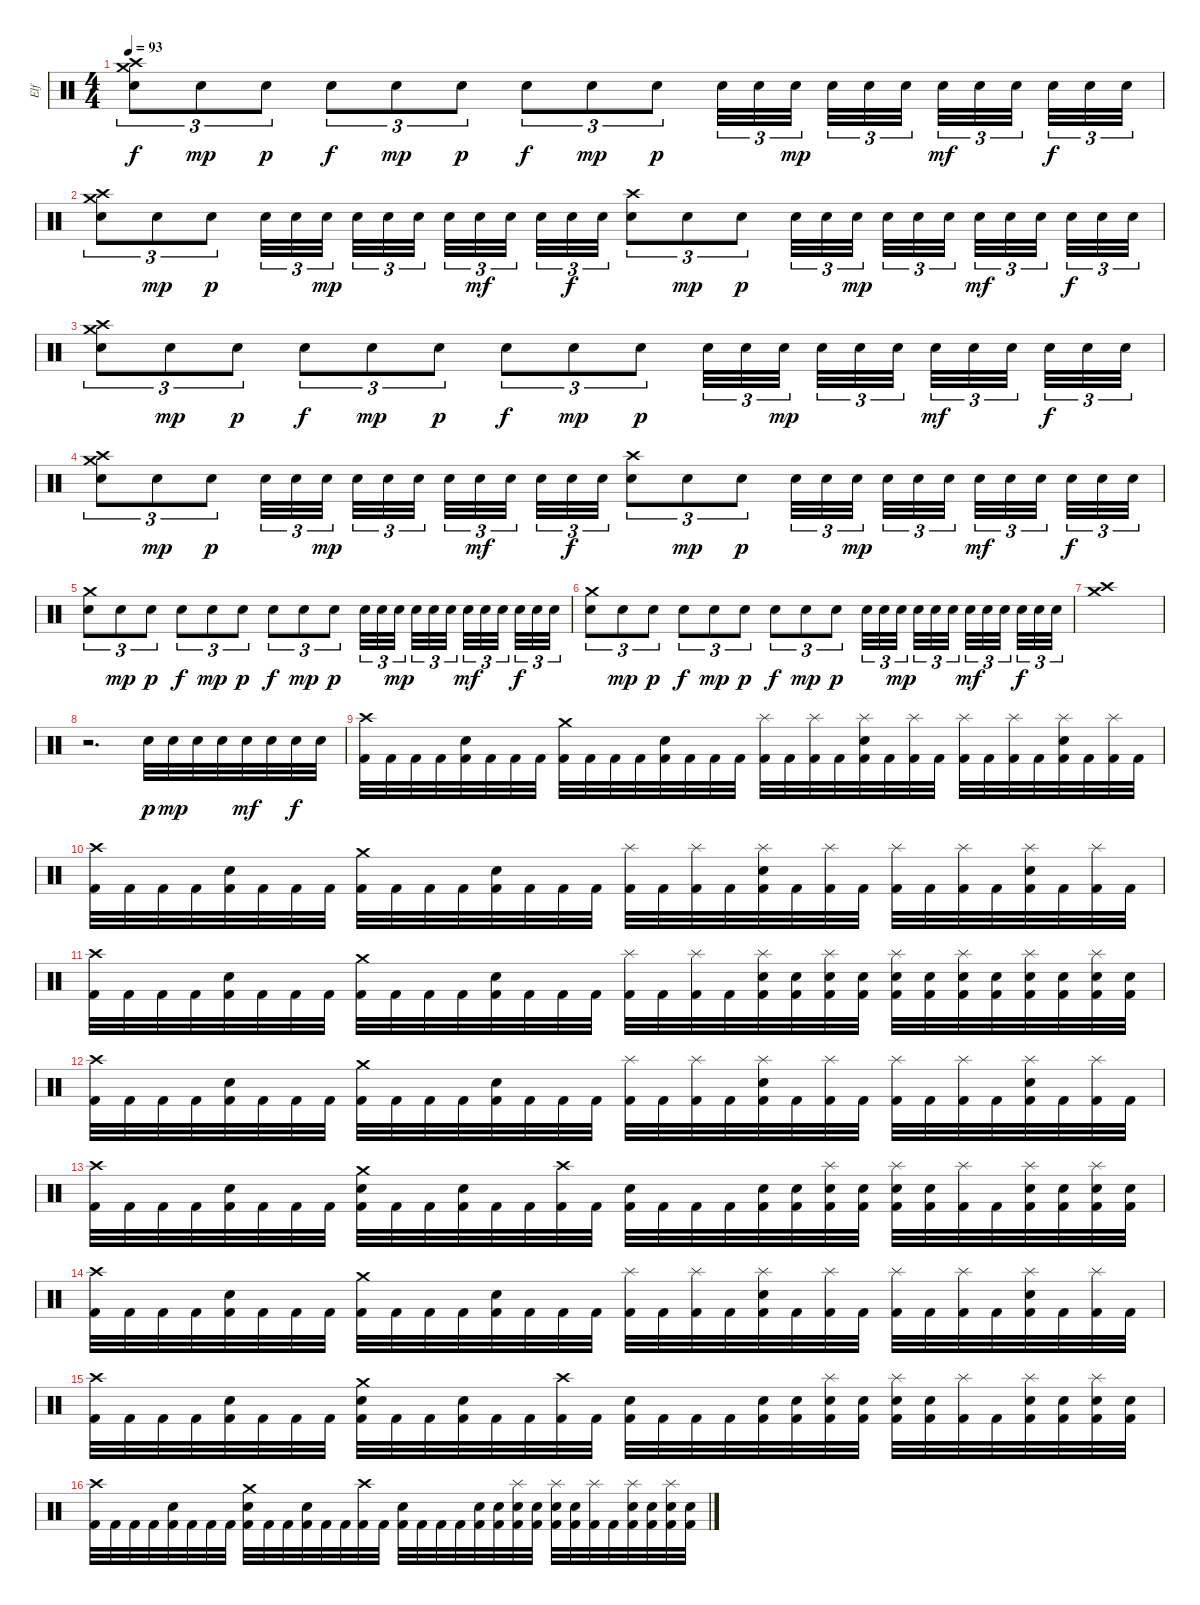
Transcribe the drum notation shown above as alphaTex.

\track ("Elf" "Elf") {instrument percussion}
\staff {score}
\articulation defaults
\ts (4 4)
\tempo 93
\clef neutral
\ks c
("Crash medium (hit)" "Crash high (hit)" "Snare (hit) 2").8{tu (3 2) dy f} "Snare (hit) 2".8{tu (3 2) dy mp} "Snare (hit) 2".8{tu (3 2) dy p} "Snare (hit) 2".8{tu (3 2) dy f} "Snare (hit) 2".8{tu (3 2) dy mp} "Snare (hit) 2".8{tu (3 2) dy p} "Snare (hit) 2".8{tu (3 2) dy f} "Snare (hit) 2".8{tu (3 2) dy mp} "Snare (hit) 2".8{tu (3 2) dy p} "Snare (hit) 2".32{tu (3 2)} "Snare (hit) 2".32{tu (3 2)} "Snare (hit) 2".32{tu (3 2) dy mp} "Snare (hit) 2".32{tu (3 2)} "Snare (hit) 2".32{tu (3 2)} "Snare (hit) 2".32{tu (3 2)} "Snare (hit) 2".32{tu (3 2) dy mf} "Snare (hit) 2".32{tu (3 2)} "Snare (hit) 2".32{tu (3 2)} "Snare (hit) 2".32{tu (3 2) dy f} "Snare (hit) 2".32{tu (3 2)} "Snare (hit) 2".32{tu (3 2)} |
("Crash medium (hit)" "Crash high (hit)" "Snare (hit) 2").8{tu (3 2)} "Snare (hit) 2".8{tu (3 2) dy mp} "Snare (hit) 2".8{tu (3 2) dy p} "Snare (hit) 2".32{tu (3 2)} "Snare (hit) 2".32{tu (3 2)} "Snare (hit) 2".32{tu (3 2) dy mp} "Snare (hit) 2".32{tu (3 2)} "Snare (hit) 2".32{tu (3 2)} "Snare (hit) 2".32{tu (3 2)} "Snare (hit) 2".32{tu (3 2)} "Snare (hit) 2".32{tu (3 2) dy mf} "Snare (hit) 2".32{tu (3 2)} "Snare (hit) 2".32{tu (3 2)} "Snare (hit) 2".32{tu (3 2) dy f} "Snare (hit) 2".32{tu (3 2)} ("Crash high (hit)" "Snare (hit) 2").8{tu (3 2)} "Snare (hit) 2".8{tu (3 2) dy mp} "Snare (hit) 2".8{tu (3 2) dy p} "Snare (hit) 2".32{tu (3 2)} "Snare (hit) 2".32{tu (3 2)} "Snare (hit) 2".32{tu (3 2) dy mp} "Snare (hit) 2".32{tu (3 2)} "Snare (hit) 2".32{tu (3 2)} "Snare (hit) 2".32{tu (3 2)} "Snare (hit) 2".32{tu (3 2) dy mf} "Snare (hit) 2".32{tu (3 2)} "Snare (hit) 2".32{tu (3 2)} "Snare (hit) 2".32{tu (3 2) dy f} "Snare (hit) 2".32{tu (3 2)} "Snare (hit) 2".32{tu (3 2)} |
("Crash medium (hit)" "Crash high (hit)" "Snare (hit) 2").8{tu (3 2)} "Snare (hit) 2".8{tu (3 2) dy mp} "Snare (hit) 2".8{tu (3 2) dy p} "Snare (hit) 2".8{tu (3 2) dy f} "Snare (hit) 2".8{tu (3 2) dy mp} "Snare (hit) 2".8{tu (3 2) dy p} "Snare (hit) 2".8{tu (3 2) dy f} "Snare (hit) 2".8{tu (3 2) dy mp} "Snare (hit) 2".8{tu (3 2) dy p} "Snare (hit) 2".32{tu (3 2)} "Snare (hit) 2".32{tu (3 2)} "Snare (hit) 2".32{tu (3 2) dy mp} "Snare (hit) 2".32{tu (3 2)} "Snare (hit) 2".32{tu (3 2)} "Snare (hit) 2".32{tu (3 2)} "Snare (hit) 2".32{tu (3 2) dy mf} "Snare (hit) 2".32{tu (3 2)} "Snare (hit) 2".32{tu (3 2)} "Snare (hit) 2".32{tu (3 2) dy f} "Snare (hit) 2".32{tu (3 2)} "Snare (hit) 2".32{tu (3 2)} |
("Crash medium (hit)" "Crash high (hit)" "Snare (hit) 2").8{tu (3 2)} "Snare (hit) 2".8{tu (3 2) dy mp} "Snare (hit) 2".8{tu (3 2) dy p} "Snare (hit) 2".32{tu (3 2)} "Snare (hit) 2".32{tu (3 2)} "Snare (hit) 2".32{tu (3 2) dy mp} "Snare (hit) 2".32{tu (3 2)} "Snare (hit) 2".32{tu (3 2)} "Snare (hit) 2".32{tu (3 2)} "Snare (hit) 2".32{tu (3 2)} "Snare (hit) 2".32{tu (3 2) dy mf} "Snare (hit) 2".32{tu (3 2)} "Snare (hit) 2".32{tu (3 2)} "Snare (hit) 2".32{tu (3 2) dy f} "Snare (hit) 2".32{tu (3 2)} ("Crash high (hit)" "Snare (hit) 2").8{tu (3 2)} "Snare (hit) 2".8{tu (3 2) dy mp} "Snare (hit) 2".8{tu (3 2) dy p} "Snare (hit) 2".32{tu (3 2)} "Snare (hit) 2".32{tu (3 2)} "Snare (hit) 2".32{tu (3 2) dy mp} "Snare (hit) 2".32{tu (3 2)} "Snare (hit) 2".32{tu (3 2)} "Snare (hit) 2".32{tu (3 2)} "Snare (hit) 2".32{tu (3 2) dy mf} "Snare (hit) 2".32{tu (3 2)} "Snare (hit) 2".32{tu (3 2)} "Snare (hit) 2".32{tu (3 2) dy f} "Snare (hit) 2".32{tu (3 2)} "Snare (hit) 2".32{tu (3 2)} |
("Crash medium (hit)" "Snare (hit) 2").8{tu (3 2)} "Snare (hit) 2".8{tu (3 2) dy mp} "Snare (hit) 2".8{tu (3 2) dy p} "Snare (hit) 2".8{tu (3 2) dy f} "Snare (hit) 2".8{tu (3 2) dy mp} "Snare (hit) 2".8{tu (3 2) dy p} "Snare (hit) 2".8{tu (3 2) dy f} "Snare (hit) 2".8{tu (3 2) dy mp} "Snare (hit) 2".8{tu (3 2) dy p} "Snare (hit) 2".32{tu (3 2)} "Snare (hit) 2".32{tu (3 2)} "Snare (hit) 2".32{tu (3 2) dy mp} "Snare (hit) 2".32{tu (3 2)} "Snare (hit) 2".32{tu (3 2)} "Snare (hit) 2".32{tu (3 2)} "Snare (hit) 2".32{tu (3 2) dy mf} "Snare (hit) 2".32{tu (3 2)} "Snare (hit) 2".32{tu (3 2)} "Snare (hit) 2".32{tu (3 2) dy f} "Snare (hit) 2".32{tu (3 2)} "Snare (hit) 2".32{tu (3 2)} |
("Crash medium (hit)" "Snare (hit) 2").8{tu (3 2)} "Snare (hit) 2".8{tu (3 2) dy mp} "Snare (hit) 2".8{tu (3 2) dy p} "Snare (hit) 2".8{tu (3 2) dy f} "Snare (hit) 2".8{tu (3 2) dy mp} "Snare (hit) 2".8{tu (3 2) dy p} "Snare (hit) 2".8{tu (3 2) dy f} "Snare (hit) 2".8{tu (3 2) dy mp} "Snare (hit) 2".8{tu (3 2) dy p} "Snare (hit) 2".32{tu (3 2)} "Snare (hit) 2".32{tu (3 2)} "Snare (hit) 2".32{tu (3 2) dy mp} "Snare (hit) 2".32{tu (3 2)} "Snare (hit) 2".32{tu (3 2)} "Snare (hit) 2".32{tu (3 2)} "Snare (hit) 2".32{tu (3 2) dy mf} "Snare (hit) 2".32{tu (3 2)} "Snare (hit) 2".32{tu (3 2)} "Snare (hit) 2".32{tu (3 2) dy f} "Snare (hit) 2".32{tu (3 2)} "Snare (hit) 2".32{tu (3 2)} |
("Crash high (hit)" "Crash medium (hit)").1{volume 13} |
r.2{d} "Snare (hit) 2".32{dy p} "Snare (hit) 2".32{dy mp} "Snare (hit) 2".32 "Snare (hit) 2".32 "Snare (hit) 2".32{dy mf} "Snare (hit) 2".32 "Snare (hit) 2".32{dy f} "Snare (hit) 2".32 |
("Crash high (hit)" "Kick (hit) 2").32 "Kick (hit) 2".32 "Kick (hit) 2".32 "Kick (hit) 2".32 ("Snare (hit) 2" "Kick (hit) 2").32 "Kick (hit) 2".32 "Kick (hit) 2".32 "Kick (hit) 2".32 ("Crash medium (hit)" "Kick (hit) 2").32 "Kick (hit) 2".32 "Kick (hit) 2".32 "Kick (hit) 2".32 ("Snare (hit) 2" "Kick (hit) 2").32 "Kick (hit) 2".32 "Kick (hit) 2".32 "Kick (hit) 2".32 ("Splash (hit)" "Kick (hit) 2").32 "Kick (hit) 2".32 ("Splash (hit)" "Kick (hit) 2").32 "Kick (hit) 2".32 ("Splash (hit)" "Snare (hit) 2" "Kick (hit) 2").32 "Kick (hit) 2".32 ("Splash (hit)" "Kick (hit) 2").32 "Kick (hit) 2".32 ("Splash (hit)" "Kick (hit) 2").32 "Kick (hit) 2".32 ("Splash (hit)" "Kick (hit) 2").32 "Kick (hit) 2".32 ("Splash (hit)" "Snare (hit) 2" "Kick (hit) 2").32 "Kick (hit) 2".32 ("Splash (hit)" "Kick (hit) 2").32 "Kick (hit) 2".32 |
("Crash high (hit)" "Kick (hit) 2").32 "Kick (hit) 2".32 "Kick (hit) 2".32 "Kick (hit) 2".32 ("Snare (hit) 2" "Kick (hit) 2").32 "Kick (hit) 2".32 "Kick (hit) 2".32 "Kick (hit) 2".32 ("Crash medium (hit)" "Kick (hit) 2").32 "Kick (hit) 2".32 "Kick (hit) 2".32 "Kick (hit) 2".32 ("Snare (hit) 2" "Kick (hit) 2").32 "Kick (hit) 2".32 "Kick (hit) 2".32 "Kick (hit) 2".32 ("Splash (hit)" "Kick (hit) 2").32 "Kick (hit) 2".32 ("Splash (hit)" "Kick (hit) 2").32 "Kick (hit) 2".32 ("Splash (hit)" "Snare (hit) 2" "Kick (hit) 2").32 "Kick (hit) 2".32 ("Splash (hit)" "Kick (hit) 2").32 "Kick (hit) 2".32 ("Splash (hit)" "Kick (hit) 2").32 "Kick (hit) 2".32 ("Splash (hit)" "Kick (hit) 2").32 "Kick (hit) 2".32 ("Splash (hit)" "Snare (hit) 2" "Kick (hit) 2").32 "Kick (hit) 2".32 ("Splash (hit)" "Kick (hit) 2").32 "Kick (hit) 2".32 |
("Crash high (hit)" "Kick (hit) 2").32 "Kick (hit) 2".32 "Kick (hit) 2".32 "Kick (hit) 2".32 ("Snare (hit) 2" "Kick (hit) 2").32 "Kick (hit) 2".32 "Kick (hit) 2".32 "Kick (hit) 2".32 ("Crash medium (hit)" "Kick (hit) 2").32 "Kick (hit) 2".32 "Kick (hit) 2".32 "Kick (hit) 2".32 ("Snare (hit) 2" "Kick (hit) 2").32 "Kick (hit) 2".32 "Kick (hit) 2".32 "Kick (hit) 2".32 ("Splash (hit)" "Kick (hit) 2").32 "Kick (hit) 2".32 ("Splash (hit)" "Kick (hit) 2").32 "Kick (hit) 2".32 ("Splash (hit)" "Snare (hit) 2" "Kick (hit) 2").32 ("Snare (hit) 2" "Kick (hit) 2").32 ("Splash (hit)" "Snare (hit) 2" "Kick (hit) 2").32 ("Snare (hit) 2" "Kick (hit) 2").32 ("Splash (hit)" "Snare (hit) 2" "Kick (hit) 2").32 ("Snare (hit) 2" "Kick (hit) 2").32 ("Splash (hit)" "Snare (hit) 2" "Kick (hit) 2").32 ("Snare (hit) 2" "Kick (hit) 2").32 ("Splash (hit)" "Snare (hit) 2" "Kick (hit) 2").32 ("Snare (hit) 2" "Kick (hit) 2").32 ("Splash (hit)" "Snare (hit) 2" "Kick (hit) 2").32 ("Snare (hit) 2" "Kick (hit) 2").32 |
("Crash high (hit)" "Kick (hit) 2").32 "Kick (hit) 2".32 "Kick (hit) 2".32 "Kick (hit) 2".32 ("Snare (hit) 2" "Kick (hit) 2").32 "Kick (hit) 2".32 "Kick (hit) 2".32 "Kick (hit) 2".32 ("Crash medium (hit)" "Kick (hit) 2").32 "Kick (hit) 2".32 "Kick (hit) 2".32 "Kick (hit) 2".32 ("Snare (hit) 2" "Kick (hit) 2").32 "Kick (hit) 2".32 "Kick (hit) 2".32 "Kick (hit) 2".32 ("Splash (hit)" "Kick (hit) 2").32 "Kick (hit) 2".32 ("Splash (hit)" "Kick (hit) 2").32 "Kick (hit) 2".32 ("Splash (hit)" "Snare (hit) 2" "Kick (hit) 2").32 "Kick (hit) 2".32 ("Splash (hit)" "Kick (hit) 2").32 "Kick (hit) 2".32 ("Splash (hit)" "Kick (hit) 2").32 "Kick (hit) 2".32 ("Splash (hit)" "Kick (hit) 2").32 "Kick (hit) 2".32 ("Splash (hit)" "Snare (hit) 2" "Kick (hit) 2").32 "Kick (hit) 2".32 ("Splash (hit)" "Kick (hit) 2").32 "Kick (hit) 2".32 |
("Crash high (hit)" "Kick (hit) 2").32 "Kick (hit) 2".32 "Kick (hit) 2".32 "Kick (hit) 2".32 ("Snare (hit) 2" "Kick (hit) 2").32 "Kick (hit) 2".32 "Kick (hit) 2".32 "Kick (hit) 2".32 ("Crash medium (hit)" "Snare (hit) 2" "Kick (hit) 2").32 "Kick (hit) 2".32 "Kick (hit) 2".32 ("Snare (hit) 2" "Kick (hit) 2").32 "Kick (hit) 2".32 "Kick (hit) 2".32 ("Crash high (hit)" "Kick (hit) 2").32 "Kick (hit) 2".32 ("Snare (hit) 2" "Kick (hit) 2").32 "Kick (hit) 2".32 "Kick (hit) 2".32 "Kick (hit) 2".32 ("Snare (hit) 2" "Kick (hit) 2").32 ("Snare (hit) 2" "Kick (hit) 2").32 ("Splash (hit)" "Snare (hit) 2" "Kick (hit) 2").32 ("Snare (hit) 2" "Kick (hit) 2").32 ("Splash (hit)" "Snare (hit) 2" "Kick (hit) 2").32 ("Snare (hit) 2" "Kick (hit) 2").32 ("Splash (hit)" "Kick (hit) 2").32 "Kick (hit) 2".32 ("Splash (hit)" "Snare (hit) 2" "Kick (hit) 2").32 ("Snare (hit) 2" "Kick (hit) 2").32 ("Splash (hit)" "Snare (hit) 2" "Kick (hit) 2").32 ("Snare (hit) 2" "Kick (hit) 2").32 |
("Crash high (hit)" "Kick (hit) 2").32 "Kick (hit) 2".32 "Kick (hit) 2".32 "Kick (hit) 2".32 ("Snare (hit) 2" "Kick (hit) 2").32 "Kick (hit) 2".32 "Kick (hit) 2".32 "Kick (hit) 2".32 ("Crash medium (hit)" "Kick (hit) 2").32 "Kick (hit) 2".32 "Kick (hit) 2".32 "Kick (hit) 2".32 ("Snare (hit) 2" "Kick (hit) 2").32 "Kick (hit) 2".32 "Kick (hit) 2".32 "Kick (hit) 2".32 ("Splash (hit)" "Kick (hit) 2").32 "Kick (hit) 2".32 ("Splash (hit)" "Kick (hit) 2").32 "Kick (hit) 2".32 ("Splash (hit)" "Snare (hit) 2" "Kick (hit) 2").32 "Kick (hit) 2".32 ("Splash (hit)" "Kick (hit) 2").32 "Kick (hit) 2".32 ("Splash (hit)" "Kick (hit) 2").32 "Kick (hit) 2".32 ("Splash (hit)" "Kick (hit) 2").32 "Kick (hit) 2".32 ("Splash (hit)" "Snare (hit) 2" "Kick (hit) 2").32 "Kick (hit) 2".32 ("Splash (hit)" "Kick (hit) 2").32 "Kick (hit) 2".32 |
("Crash high (hit)" "Kick (hit) 2").32 "Kick (hit) 2".32 "Kick (hit) 2".32 "Kick (hit) 2".32 ("Snare (hit) 2" "Kick (hit) 2").32 "Kick (hit) 2".32 "Kick (hit) 2".32 "Kick (hit) 2".32 ("Crash medium (hit)" "Snare (hit) 2" "Kick (hit) 2").32 "Kick (hit) 2".32 "Kick (hit) 2".32 ("Snare (hit) 2" "Kick (hit) 2").32 "Kick (hit) 2".32 "Kick (hit) 2".32 ("Crash high (hit)" "Kick (hit) 2").32 "Kick (hit) 2".32 ("Snare (hit) 2" "Kick (hit) 2").32 "Kick (hit) 2".32 "Kick (hit) 2".32 "Kick (hit) 2".32 ("Snare (hit) 2" "Kick (hit) 2").32 ("Snare (hit) 2" "Kick (hit) 2").32 ("Splash (hit)" "Snare (hit) 2" "Kick (hit) 2").32 ("Snare (hit) 2" "Kick (hit) 2").32 ("Splash (hit)" "Snare (hit) 2" "Kick (hit) 2").32 ("Snare (hit) 2" "Kick (hit) 2").32 ("Splash (hit)" "Kick (hit) 2").32 "Kick (hit) 2".32 ("Splash (hit)" "Snare (hit) 2" "Kick (hit) 2").32 ("Snare (hit) 2" "Kick (hit) 2").32 ("Splash (hit)" "Snare (hit) 2" "Kick (hit) 2").32 ("Snare (hit) 2" "Kick (hit) 2").32 |
("Crash high (hit)" "Kick (hit) 2").32 "Kick (hit) 2".32 "Kick (hit) 2".32 "Kick (hit) 2".32 ("Snare (hit) 2" "Kick (hit) 2").32 "Kick (hit) 2".32 "Kick (hit) 2".32 "Kick (hit) 2".32 ("Crash medium (hit)" "Snare (hit) 2" "Kick (hit) 2").32 "Kick (hit) 2".32 "Kick (hit) 2".32 ("Snare (hit) 2" "Kick (hit) 2").32 "Kick (hit) 2".32 "Kick (hit) 2".32 ("Crash high (hit)" "Kick (hit) 2").32 "Kick (hit) 2".32 ("Snare (hit) 2" "Kick (hit) 2").32 "Kick (hit) 2".32 "Kick (hit) 2".32 "Kick (hit) 2".32 ("Snare (hit) 2" "Kick (hit) 2").32 ("Snare (hit) 2" "Kick (hit) 2").32 ("Splash (hit)" "Snare (hit) 2" "Kick (hit) 2").32 ("Snare (hit) 2" "Kick (hit) 2").32 ("Splash (hit)" "Snare (hit) 2" "Kick (hit) 2").32 ("Snare (hit) 2" "Kick (hit) 2").32 ("Splash (hit)" "Kick (hit) 2").32 "Kick (hit) 2".32 ("Splash (hit)" "Snare (hit) 2" "Kick (hit) 2").32 ("Snare (hit) 2" "Kick (hit) 2").32 ("Splash (hit)" "Snare (hit) 2" "Kick (hit) 2").32 ("Snare (hit) 2" "Kick (hit) 2").32
